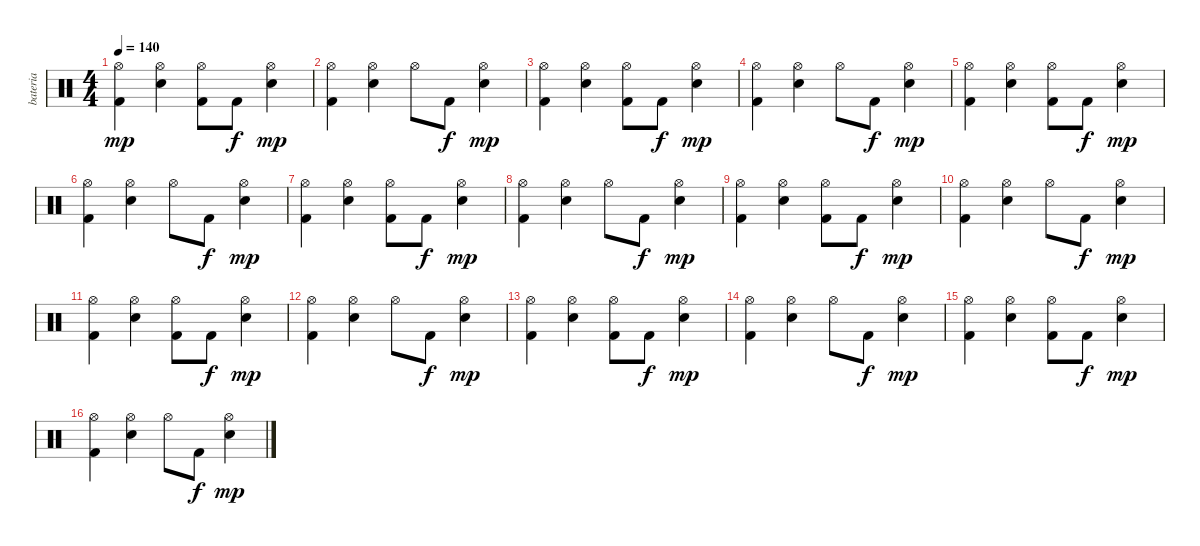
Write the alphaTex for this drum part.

\track ("bateria" "bateria") {instrument percussion}
\staff {score}
\articulation defaults
\ts (4 4)
\tempo 140
\clef neutral
\ks c
("Hi-Hat (open)" "Kick (hit) 2").4{dy mp} ("Hi-Hat (open)" "Snare (hit) 2").4 ("Hi-Hat (open)" "Kick (hit) 2").8 "Kick (hit) 2".8{dy f} ("Hi-Hat (open)" "Snare (hit) 2").4{dy mp} |
("Hi-Hat (open)" "Kick (hit) 2").4 ("Hi-Hat (open)" "Snare (hit) 2").4 "Hi-Hat (open)".8 "Kick (hit) 2".8{dy f} ("Hi-Hat (open)" "Snare (hit) 2").4{dy mp} |
("Hi-Hat (open)" "Kick (hit) 2").4 ("Hi-Hat (open)" "Snare (hit) 2").4 ("Hi-Hat (open)" "Kick (hit) 2").8 "Kick (hit) 2".8{dy f} ("Hi-Hat (open)" "Snare (hit) 2").4{dy mp} |
("Hi-Hat (open)" "Kick (hit) 2").4 ("Hi-Hat (open)" "Snare (hit) 2").4 "Hi-Hat (open)".8 "Kick (hit) 2".8{dy f} ("Hi-Hat (open)" "Snare (hit) 2").4{dy mp} |
("Hi-Hat (open)" "Kick (hit) 2").4 ("Hi-Hat (open)" "Snare (hit) 2").4 ("Hi-Hat (open)" "Kick (hit) 2").8 "Kick (hit) 2".8{dy f} ("Hi-Hat (open)" "Snare (hit) 2").4{dy mp} |
("Hi-Hat (open)" "Kick (hit) 2").4 ("Hi-Hat (open)" "Snare (hit) 2").4 "Hi-Hat (open)".8 "Kick (hit) 2".8{dy f} ("Hi-Hat (open)" "Snare (hit) 2").4{dy mp} |
("Hi-Hat (open)" "Kick (hit) 2").4 ("Hi-Hat (open)" "Snare (hit) 2").4 ("Hi-Hat (open)" "Kick (hit) 2").8 "Kick (hit) 2".8{dy f} ("Hi-Hat (open)" "Snare (hit) 2").4{dy mp} |
("Hi-Hat (open)" "Kick (hit) 2").4 ("Hi-Hat (open)" "Snare (hit) 2").4 "Hi-Hat (open)".8 "Kick (hit) 2".8{dy f} ("Hi-Hat (open)" "Snare (hit) 2").4{dy mp} |
("Hi-Hat (open)" "Kick (hit) 2").4 ("Hi-Hat (open)" "Snare (hit) 2").4 ("Hi-Hat (open)" "Kick (hit) 2").8 "Kick (hit) 2".8{dy f} ("Hi-Hat (open)" "Snare (hit) 2").4{dy mp} |
("Hi-Hat (open)" "Kick (hit) 2").4 ("Hi-Hat (open)" "Snare (hit) 2").4 "Hi-Hat (open)".8 "Kick (hit) 2".8{dy f} ("Hi-Hat (open)" "Snare (hit) 2").4{dy mp} |
("Hi-Hat (open)" "Kick (hit) 2").4 ("Hi-Hat (open)" "Snare (hit) 2").4 ("Hi-Hat (open)" "Kick (hit) 2").8 "Kick (hit) 2".8{dy f} ("Hi-Hat (open)" "Snare (hit) 2").4{dy mp} |
("Hi-Hat (open)" "Kick (hit) 2").4 ("Hi-Hat (open)" "Snare (hit) 2").4 "Hi-Hat (open)".8 "Kick (hit) 2".8{dy f} ("Hi-Hat (open)" "Snare (hit) 2").4{dy mp} |
("Hi-Hat (open)" "Kick (hit) 2").4 ("Hi-Hat (open)" "Snare (hit) 2").4 ("Hi-Hat (open)" "Kick (hit) 2").8 "Kick (hit) 2".8{dy f} ("Hi-Hat (open)" "Snare (hit) 2").4{dy mp} |
("Hi-Hat (open)" "Kick (hit) 2").4 ("Hi-Hat (open)" "Snare (hit) 2").4 "Hi-Hat (open)".8 "Kick (hit) 2".8{dy f} ("Hi-Hat (open)" "Snare (hit) 2").4{dy mp} |
("Hi-Hat (open)" "Kick (hit) 2").4 ("Hi-Hat (open)" "Snare (hit) 2").4 ("Hi-Hat (open)" "Kick (hit) 2").8 "Kick (hit) 2".8{dy f} ("Hi-Hat (open)" "Snare (hit) 2").4{dy mp} |
("Hi-Hat (open)" "Kick (hit) 2").4 ("Hi-Hat (open)" "Snare (hit) 2").4 "Hi-Hat (open)".8 "Kick (hit) 2".8{dy f} ("Hi-Hat (open)" "Snare (hit) 2").4{dy mp}
